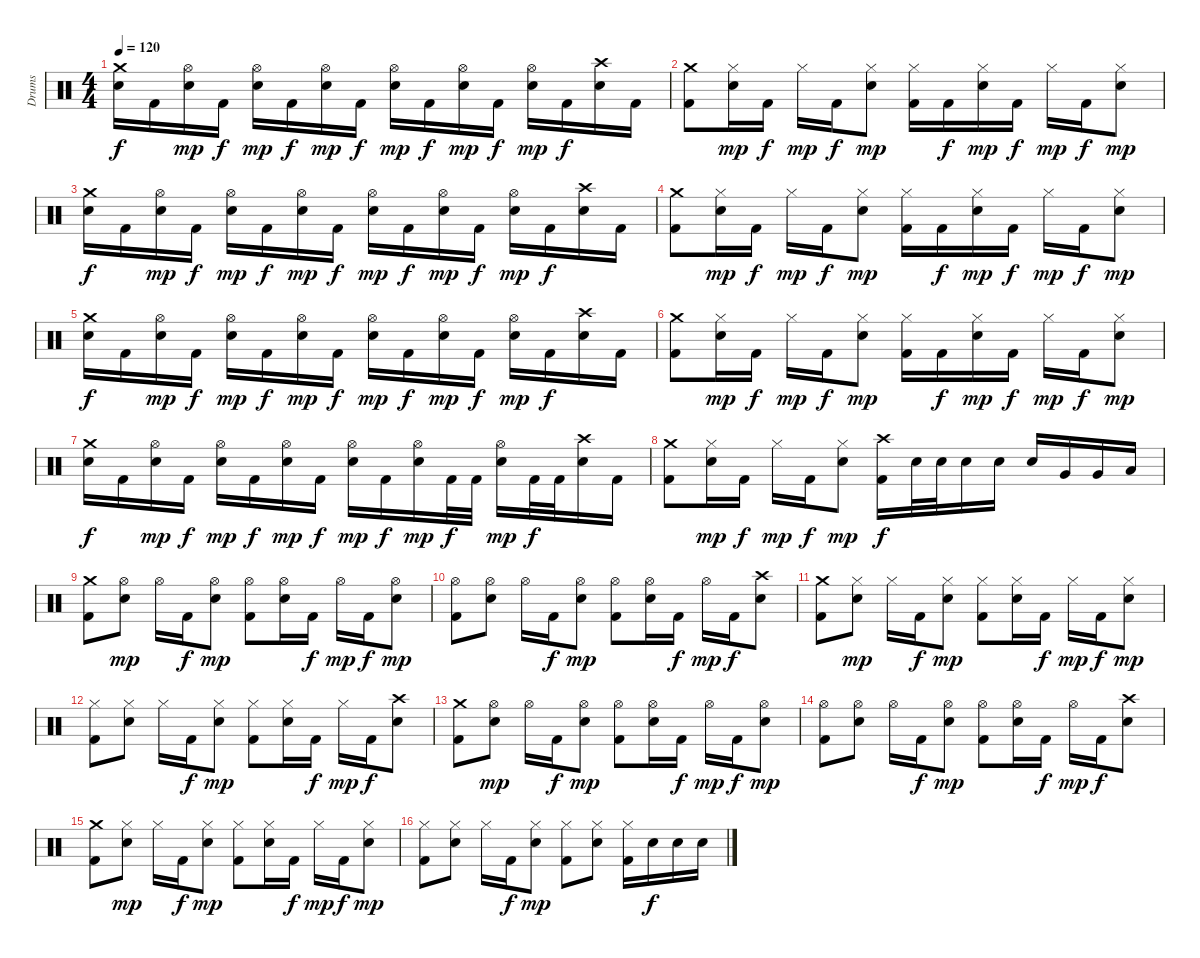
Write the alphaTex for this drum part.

\track ("Drums" "Drums") {instrument percussion}
\staff {score}
\articulation defaults
\ts (4 4)
\tempo 120
\clef neutral
\ks c
("Crash medium (hit)" "Snare (hit) 2").16{dy f} "Kick (hit) 2".16 ("Hi-Hat (open)" "Snare (hit) 2").16{dy mp} "Kick (hit) 2".16{dy f} ("Hi-Hat (open)" "Snare (hit) 2").16{dy mp} "Kick (hit) 2".16{dy f} ("Hi-Hat (open)" "Snare (hit) 2").16{dy mp} "Kick (hit) 2".16{dy f} ("Hi-Hat (open)" "Snare (hit) 2").16{dy mp} "Kick (hit) 2".16{dy f} ("Hi-Hat (open)" "Snare (hit) 2").16{dy mp} "Kick (hit) 2".16{dy f} ("Hi-Hat (open)" "Snare (hit) 2").16{dy mp} "Kick (hit) 2".16{dy f} ("Crash high (hit)" "Snare (hit) 2").16 "Kick (hit) 2".16 |
("Crash medium (hit)" "Kick (hit) 2").8 ("Hi-Hat (closed)" "Snare (hit) 2").16{dy mp} "Kick (hit) 2".16{dy f} "Hi-Hat (closed)".16{dy mp} "Kick (hit) 2".16{dy f} ("Hi-Hat (closed)" "Snare (hit) 2").8{dy mp} ("Hi-Hat (closed)" "Kick (hit) 2").16 "Kick (hit) 2".16{dy f} ("Hi-Hat (closed)" "Snare (hit) 2").16{dy mp} "Kick (hit) 2".16{dy f} "Hi-Hat (closed)".16{dy mp} "Kick (hit) 2".16{dy f} ("Hi-Hat (closed)" "Snare (hit) 2").8{dy mp} |
("Crash medium (hit)" "Snare (hit) 2").16{dy f} "Kick (hit) 2".16 ("Hi-Hat (open)" "Snare (hit) 2").16{dy mp} "Kick (hit) 2".16{dy f} ("Hi-Hat (open)" "Snare (hit) 2").16{dy mp} "Kick (hit) 2".16{dy f} ("Hi-Hat (open)" "Snare (hit) 2").16{dy mp} "Kick (hit) 2".16{dy f} ("Hi-Hat (open)" "Snare (hit) 2").16{dy mp} "Kick (hit) 2".16{dy f} ("Hi-Hat (open)" "Snare (hit) 2").16{dy mp} "Kick (hit) 2".16{dy f} ("Hi-Hat (open)" "Snare (hit) 2").16{dy mp} "Kick (hit) 2".16{dy f} ("Crash high (hit)" "Snare (hit) 2").16 "Kick (hit) 2".16 |
("Crash medium (hit)" "Kick (hit) 2").8 ("Hi-Hat (closed)" "Snare (hit) 2").16{dy mp} "Kick (hit) 2".16{dy f} "Hi-Hat (closed)".16{dy mp} "Kick (hit) 2".16{dy f} ("Hi-Hat (closed)" "Snare (hit) 2").8{dy mp} ("Hi-Hat (closed)" "Kick (hit) 2").16 "Kick (hit) 2".16{dy f} ("Hi-Hat (closed)" "Snare (hit) 2").16{dy mp} "Kick (hit) 2".16{dy f} "Hi-Hat (closed)".16{dy mp} "Kick (hit) 2".16{dy f} ("Hi-Hat (closed)" "Snare (hit) 2").8{dy mp} |
("Crash medium (hit)" "Snare (hit) 2").16{dy f} "Kick (hit) 2".16 ("Hi-Hat (open)" "Snare (hit) 2").16{dy mp} "Kick (hit) 2".16{dy f} ("Hi-Hat (open)" "Snare (hit) 2").16{dy mp} "Kick (hit) 2".16{dy f} ("Hi-Hat (open)" "Snare (hit) 2").16{dy mp} "Kick (hit) 2".16{dy f} ("Hi-Hat (open)" "Snare (hit) 2").16{dy mp} "Kick (hit) 2".16{dy f} ("Hi-Hat (open)" "Snare (hit) 2").16{dy mp} "Kick (hit) 2".16{dy f} ("Hi-Hat (open)" "Snare (hit) 2").16{dy mp} "Kick (hit) 2".16{dy f} ("Crash high (hit)" "Snare (hit) 2").16 "Kick (hit) 2".16 |
("Crash medium (hit)" "Kick (hit) 2").8 ("Hi-Hat (closed)" "Snare (hit) 2").16{dy mp} "Kick (hit) 2".16{dy f} "Hi-Hat (closed)".16{dy mp} "Kick (hit) 2".16{dy f} ("Hi-Hat (closed)" "Snare (hit) 2").8{dy mp} ("Hi-Hat (closed)" "Kick (hit) 2").16 "Kick (hit) 2".16{dy f} ("Hi-Hat (closed)" "Snare (hit) 2").16{dy mp} "Kick (hit) 2".16{dy f} "Hi-Hat (closed)".16{dy mp} "Kick (hit) 2".16{dy f} ("Hi-Hat (closed)" "Snare (hit) 2").8{dy mp} |
("Crash medium (hit)" "Snare (hit) 2").16{dy f} "Kick (hit) 2".16 ("Hi-Hat (open)" "Snare (hit) 2").16{dy mp} "Kick (hit) 2".16{dy f} ("Hi-Hat (open)" "Snare (hit) 2").16{dy mp} "Kick (hit) 2".16{dy f} ("Hi-Hat (open)" "Snare (hit) 2").16{dy mp} "Kick (hit) 2".16{dy f} ("Hi-Hat (open)" "Snare (hit) 2").16{dy mp} "Kick (hit) 2".16{dy f} ("Hi-Hat (open)" "Snare (hit) 2").16{dy mp} "Kick (hit) 2".32{dy f} "Kick (hit) 2".32 ("Hi-Hat (open)" "Snare (hit) 2").16{dy mp} "Kick (hit) 2".32{dy f} "Kick (hit) 2".32 ("Crash high (hit)" "Snare (hit) 2").16 "Kick (hit) 2".16 |
("Crash medium (hit)" "Kick (hit) 2").8 ("Hi-Hat (closed)" "Snare (hit) 2").16{dy mp} "Kick (hit) 2".16{dy f} "Hi-Hat (closed)".16{dy mp} "Kick (hit) 2".16{dy f} ("Hi-Hat (closed)" "Snare (hit) 2").8{dy mp} ("Crash high (hit)" "Kick (hit) 2").16{dy f} "Snare (hit) 2".32 "Snare (hit) 2".32 "Snare (hit) 2".16 "Snare (hit) 2".16 "Snare (hit) 2".16 "Very Low Tom (hit)".16 "Very Low Tom (hit)".16 "Low Floor Tom (hit)".16 |
("Crash medium (hit)" "Kick (hit) 2").8 ("Hi-Hat (open)" "Snare (hit) 2").8{dy mp} "Hi-Hat (open)".16 "Kick (hit) 2".16{dy f} ("Hi-Hat (open)" "Snare (hit) 2").8{dy mp} ("Hi-Hat (open)" "Kick (hit) 2").8 ("Hi-Hat (open)" "Snare (hit) 2").16 "Kick (hit) 2".16{dy f} "Hi-Hat (open)".16{dy mp} "Kick (hit) 2".16{dy f} ("Hi-Hat (open)" "Snare (hit) 2").8{dy mp} |
("Hi-Hat (open)" "Kick (hit) 2").8 ("Hi-Hat (open)" "Snare (hit) 2").8 "Hi-Hat (open)".16 "Kick (hit) 2".16{dy f} ("Hi-Hat (open)" "Snare (hit) 2").8{dy mp} ("Hi-Hat (open)" "Kick (hit) 2").8 ("Hi-Hat (open)" "Snare (hit) 2").16 "Kick (hit) 2".16{dy f} "Hi-Hat (open)".16{dy mp} "Kick (hit) 2".16{dy f} ("Crash high (hit)" "Snare (hit) 2").8 |
("Crash medium (hit)" "Kick (hit) 2").8 ("Hi-Hat (closed)" "Snare (hit) 2").8{dy mp} "Hi-Hat (closed)".16 "Kick (hit) 2".16{dy f} ("Hi-Hat (closed)" "Snare (hit) 2").8{dy mp} ("Hi-Hat (closed)" "Kick (hit) 2").8 ("Hi-Hat (closed)" "Snare (hit) 2").16 "Kick (hit) 2".16{dy f} "Hi-Hat (closed)".16{dy mp} "Kick (hit) 2".16{dy f} ("Hi-Hat (closed)" "Snare (hit) 2").8{dy mp} |
("Hi-Hat (closed)" "Kick (hit) 2").8 ("Hi-Hat (closed)" "Snare (hit) 2").8 "Hi-Hat (closed)".16 "Kick (hit) 2".16{dy f} ("Hi-Hat (closed)" "Snare (hit) 2").8{dy mp} ("Hi-Hat (closed)" "Kick (hit) 2").8 ("Hi-Hat (closed)" "Snare (hit) 2").16 "Kick (hit) 2".16{dy f} "Hi-Hat (closed)".16{dy mp} "Kick (hit) 2".16{dy f} ("Crash high (hit)" "Snare (hit) 2").8 |
("Crash medium (hit)" "Kick (hit) 2").8 ("Hi-Hat (open)" "Snare (hit) 2").8{dy mp} "Hi-Hat (open)".16 "Kick (hit) 2".16{dy f} ("Hi-Hat (open)" "Snare (hit) 2").8{dy mp} ("Hi-Hat (open)" "Kick (hit) 2").8 ("Hi-Hat (open)" "Snare (hit) 2").16 "Kick (hit) 2".16{dy f} "Hi-Hat (open)".16{dy mp} "Kick (hit) 2".16{dy f} ("Hi-Hat (open)" "Snare (hit) 2").8{dy mp} |
("Hi-Hat (open)" "Kick (hit) 2").8 ("Hi-Hat (open)" "Snare (hit) 2").8 "Hi-Hat (open)".16 "Kick (hit) 2".16{dy f} ("Hi-Hat (open)" "Snare (hit) 2").8{dy mp} ("Hi-Hat (open)" "Kick (hit) 2").8 ("Hi-Hat (open)" "Snare (hit) 2").16 "Kick (hit) 2".16{dy f} "Hi-Hat (open)".16{dy mp} "Kick (hit) 2".16{dy f} ("Crash high (hit)" "Snare (hit) 2").8 |
("Crash medium (hit)" "Kick (hit) 2").8 ("Hi-Hat (closed)" "Snare (hit) 2").8{dy mp} "Hi-Hat (closed)".16 "Kick (hit) 2".16{dy f} ("Hi-Hat (closed)" "Snare (hit) 2").8{dy mp} ("Hi-Hat (closed)" "Kick (hit) 2").8 ("Hi-Hat (closed)" "Snare (hit) 2").16 "Kick (hit) 2".16{dy f} "Hi-Hat (closed)".16{dy mp} "Kick (hit) 2".16{dy f} ("Hi-Hat (closed)" "Snare (hit) 2").8{dy mp} |
("Hi-Hat (closed)" "Kick (hit) 2").8 ("Hi-Hat (closed)" "Snare (hit) 2").8 "Hi-Hat (closed)".16 "Kick (hit) 2".16{dy f} ("Hi-Hat (closed)" "Snare (hit) 2").8{dy mp} ("Hi-Hat (closed)" "Kick (hit) 2").8 ("Hi-Hat (closed)" "Snare (hit) 2").8 ("Hi-Hat (closed)" "Kick (hit) 2").16 "Snare (hit) 2".16{dy f} "Snare (hit) 2".16 "Snare (hit) 2".16
